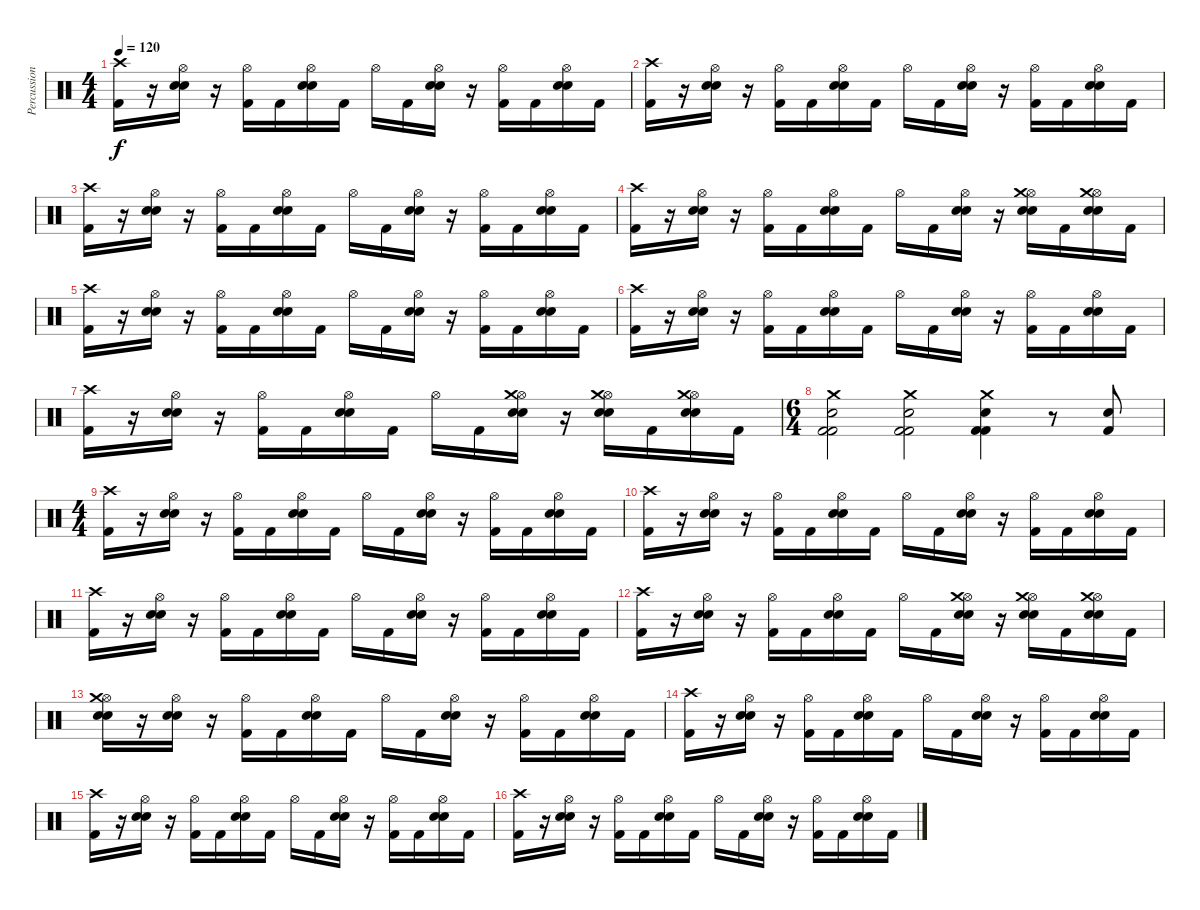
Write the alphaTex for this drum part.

\track ("Percussion" "Percussion") {instrument percussion}
\staff {score}
\articulation defaults
\ts (4 4)
\tempo 120
\clef neutral
\ks c
("Kick (hit) 2" "Crash high (hit)").16{dy f} r.16 ("Hi-Hat (open)" "Electric Snare (hit)" "Snare (hit) 2").16 r.16 ("Kick (hit) 2" "Hi-Hat (open)").16 "Kick (hit) 2".16 ("Electric Snare (hit)" "Hi-Hat (open)" "Snare (hit) 2").16 "Kick (hit) 2".16 "Hi-Hat (open)".16 "Kick (hit) 2".16 ("Hi-Hat (open)" "Electric Snare (hit)" "Snare (hit) 2").16 r.16 ("Kick (hit) 2" "Hi-Hat (open)").16 "Kick (hit) 2".16 ("Electric Snare (hit)" "Hi-Hat (open)" "Snare (hit) 2").16 "Kick (hit) 2".16 |
("Kick (hit) 2" "Crash high (hit)").16 r.16 ("Hi-Hat (open)" "Electric Snare (hit)" "Snare (hit) 2").16 r.16 ("Kick (hit) 2" "Hi-Hat (open)").16 "Kick (hit) 2".16 ("Electric Snare (hit)" "Hi-Hat (open)" "Snare (hit) 2").16 "Kick (hit) 2".16 "Hi-Hat (open)".16 "Kick (hit) 2".16 ("Hi-Hat (open)" "Electric Snare (hit)" "Snare (hit) 2").16 r.16 ("Kick (hit) 2" "Hi-Hat (open)").16 "Kick (hit) 2".16 ("Electric Snare (hit)" "Hi-Hat (open)" "Snare (hit) 2").16 "Kick (hit) 2".16 |
("Kick (hit) 2" "Crash high (hit)").16 r.16 ("Hi-Hat (open)" "Electric Snare (hit)" "Snare (hit) 2").16 r.16 ("Kick (hit) 2" "Hi-Hat (open)").16 "Kick (hit) 2".16 ("Electric Snare (hit)" "Hi-Hat (open)" "Snare (hit) 2").16 "Kick (hit) 2".16 "Hi-Hat (open)".16 "Kick (hit) 2".16 ("Hi-Hat (open)" "Electric Snare (hit)" "Snare (hit) 2").16 r.16 ("Kick (hit) 2" "Hi-Hat (open)").16 "Kick (hit) 2".16 ("Electric Snare (hit)" "Hi-Hat (open)" "Snare (hit) 2").16 "Kick (hit) 2".16 |
("Kick (hit) 2" "Crash high (hit)").16 r.16 ("Hi-Hat (open)" "Electric Snare (hit)" "Snare (hit) 2").16 r.16 ("Kick (hit) 2" "Hi-Hat (open)").16 "Kick (hit) 2".16 ("Electric Snare (hit)" "Hi-Hat (open)" "Snare (hit) 2").16 "Kick (hit) 2".16 "Hi-Hat (open)".16 "Kick (hit) 2".16 ("Hi-Hat (open)" "Electric Snare (hit)" "Snare (hit) 2").16 r.16 ("Hi-Hat (open)" "Electric Snare (hit)" "Snare (hit) 2" "Crash medium (hit)").16 "Kick (hit) 2".16 ("Hi-Hat (open)" "Electric Snare (hit)" "Snare (hit) 2" "Crash medium (hit)").16 "Kick (hit) 2".16 |
("Kick (hit) 2" "Crash high (hit)").16 r.16 ("Hi-Hat (open)" "Electric Snare (hit)" "Snare (hit) 2").16 r.16 ("Kick (hit) 2" "Hi-Hat (open)").16 "Kick (hit) 2".16 ("Electric Snare (hit)" "Hi-Hat (open)" "Snare (hit) 2").16 "Kick (hit) 2".16 "Hi-Hat (open)".16 "Kick (hit) 2".16 ("Hi-Hat (open)" "Electric Snare (hit)" "Snare (hit) 2").16 r.16 ("Kick (hit) 2" "Hi-Hat (open)").16 "Kick (hit) 2".16 ("Electric Snare (hit)" "Hi-Hat (open)" "Snare (hit) 2").16 "Kick (hit) 2".16 |
("Kick (hit) 2" "Crash high (hit)").16 r.16 ("Hi-Hat (open)" "Electric Snare (hit)" "Snare (hit) 2").16 r.16 ("Kick (hit) 2" "Hi-Hat (open)").16 "Kick (hit) 2".16 ("Electric Snare (hit)" "Hi-Hat (open)" "Snare (hit) 2").16 "Kick (hit) 2".16 "Hi-Hat (open)".16 "Kick (hit) 2".16 ("Hi-Hat (open)" "Electric Snare (hit)" "Snare (hit) 2").16 r.16 ("Kick (hit) 2" "Hi-Hat (open)").16 "Kick (hit) 2".16 ("Electric Snare (hit)" "Hi-Hat (open)" "Snare (hit) 2").16 "Kick (hit) 2".16 |
("Kick (hit) 2" "Crash high (hit)").16 r.16 ("Hi-Hat (open)" "Electric Snare (hit)" "Snare (hit) 2").16 r.16 ("Kick (hit) 2" "Hi-Hat (open)").16 "Kick (hit) 2".16 ("Electric Snare (hit)" "Hi-Hat (open)" "Snare (hit) 2").16 "Kick (hit) 2".16 "Hi-Hat (open)".16 "Kick (hit) 2".16 ("Hi-Hat (open)" "Electric Snare (hit)" "Snare (hit) 2" "Crash medium (hit)").16 r.16 ("Hi-Hat (open)" "Electric Snare (hit)" "Snare (hit) 2" "Crash medium (hit)").16 "Kick (hit) 2".16 ("Hi-Hat (open)" "Electric Snare (hit)" "Snare (hit) 2" "Crash medium (hit)").16 "Kick (hit) 2".16 |
\ts (6 4)
("Crash medium (hit)" "Electric Snare (hit)" "Kick (hit) 2" "Kick (hit) 2").2 ("Crash medium (hit)" "Electric Snare (hit)" "Kick (hit) 2" "Kick (hit) 2").2 ("Crash medium (hit)" "Electric Snare (hit)" "Kick (hit) 2" "Kick (hit) 2").4 r.8 ("Snare (hit) 2" "Kick (hit) 2").8 |
\ts (4 4)
("Kick (hit) 2" "Crash high (hit)").16 r.16 ("Hi-Hat (open)" "Electric Snare (hit)" "Snare (hit) 2").16 r.16 ("Kick (hit) 2" "Hi-Hat (open)").16 "Kick (hit) 2".16 ("Electric Snare (hit)" "Hi-Hat (open)" "Snare (hit) 2").16 "Kick (hit) 2".16 "Hi-Hat (open)".16 "Kick (hit) 2".16 ("Hi-Hat (open)" "Electric Snare (hit)" "Snare (hit) 2").16 r.16 ("Kick (hit) 2" "Hi-Hat (open)").16 "Kick (hit) 2".16 ("Electric Snare (hit)" "Hi-Hat (open)" "Snare (hit) 2").16 "Kick (hit) 2".16 |
("Kick (hit) 2" "Crash high (hit)").16 r.16 ("Hi-Hat (open)" "Electric Snare (hit)" "Snare (hit) 2").16 r.16 ("Kick (hit) 2" "Hi-Hat (open)").16 "Kick (hit) 2".16 ("Electric Snare (hit)" "Hi-Hat (open)" "Snare (hit) 2").16 "Kick (hit) 2".16 "Hi-Hat (open)".16 "Kick (hit) 2".16 ("Hi-Hat (open)" "Electric Snare (hit)" "Snare (hit) 2").16 r.16 ("Kick (hit) 2" "Hi-Hat (open)").16 "Kick (hit) 2".16 ("Electric Snare (hit)" "Hi-Hat (open)" "Snare (hit) 2").16 "Kick (hit) 2".16 |
("Kick (hit) 2" "Crash high (hit)").16 r.16 ("Hi-Hat (open)" "Electric Snare (hit)" "Snare (hit) 2").16 r.16 ("Kick (hit) 2" "Hi-Hat (open)").16 "Kick (hit) 2".16 ("Electric Snare (hit)" "Hi-Hat (open)" "Snare (hit) 2").16 "Kick (hit) 2".16 "Hi-Hat (open)".16 "Kick (hit) 2".16 ("Hi-Hat (open)" "Electric Snare (hit)" "Snare (hit) 2").16 r.16 ("Kick (hit) 2" "Hi-Hat (open)").16 "Kick (hit) 2".16 ("Electric Snare (hit)" "Hi-Hat (open)" "Snare (hit) 2").16 "Kick (hit) 2".16 |
("Kick (hit) 2" "Crash high (hit)").16 r.16 ("Hi-Hat (open)" "Electric Snare (hit)" "Snare (hit) 2").16 r.16 ("Kick (hit) 2" "Hi-Hat (open)").16 "Kick (hit) 2".16 ("Electric Snare (hit)" "Hi-Hat (open)" "Snare (hit) 2").16 "Kick (hit) 2".16 "Hi-Hat (open)".16 "Kick (hit) 2".16 ("Hi-Hat (open)" "Electric Snare (hit)" "Snare (hit) 2" "Crash medium (hit)").16 r.16 ("Hi-Hat (open)" "Electric Snare (hit)" "Snare (hit) 2" "Crash medium (hit)").16 "Kick (hit) 2".16 ("Hi-Hat (open)" "Electric Snare (hit)" "Snare (hit) 2" "Crash medium (hit)").16 "Kick (hit) 2".16 |
("Hi-Hat (open)" "Electric Snare (hit)" "Snare (hit) 2" "Crash medium (hit)").16 r.16 ("Hi-Hat (open)" "Electric Snare (hit)" "Snare (hit) 2").16 r.16 ("Kick (hit) 2" "Hi-Hat (open)").16 "Kick (hit) 2".16 ("Electric Snare (hit)" "Hi-Hat (open)" "Snare (hit) 2").16 "Kick (hit) 2".16 "Hi-Hat (open)".16 "Kick (hit) 2".16 ("Hi-Hat (open)" "Electric Snare (hit)" "Snare (hit) 2").16 r.16 ("Kick (hit) 2" "Hi-Hat (open)").16 "Kick (hit) 2".16 ("Electric Snare (hit)" "Hi-Hat (open)" "Snare (hit) 2").16 "Kick (hit) 2".16 |
("Kick (hit) 2" "Crash high (hit)").16 r.16 ("Hi-Hat (open)" "Electric Snare (hit)" "Snare (hit) 2").16 r.16 ("Kick (hit) 2" "Hi-Hat (open)").16 "Kick (hit) 2".16 ("Electric Snare (hit)" "Hi-Hat (open)" "Snare (hit) 2").16 "Kick (hit) 2".16 "Hi-Hat (open)".16 "Kick (hit) 2".16 ("Hi-Hat (open)" "Electric Snare (hit)" "Snare (hit) 2").16 r.16 ("Kick (hit) 2" "Hi-Hat (open)").16 "Kick (hit) 2".16 ("Electric Snare (hit)" "Hi-Hat (open)" "Snare (hit) 2").16 "Kick (hit) 2".16 |
("Kick (hit) 2" "Crash high (hit)").16 r.16 ("Hi-Hat (open)" "Electric Snare (hit)" "Snare (hit) 2").16 r.16 ("Kick (hit) 2" "Hi-Hat (open)").16 "Kick (hit) 2".16 ("Electric Snare (hit)" "Hi-Hat (open)" "Snare (hit) 2").16 "Kick (hit) 2".16 "Hi-Hat (open)".16 "Kick (hit) 2".16 ("Hi-Hat (open)" "Electric Snare (hit)" "Snare (hit) 2").16 r.16 ("Kick (hit) 2" "Hi-Hat (open)").16 "Kick (hit) 2".16 ("Electric Snare (hit)" "Hi-Hat (open)" "Snare (hit) 2").16 "Kick (hit) 2".16 |
("Kick (hit) 2" "Crash high (hit)").16 r.16 ("Hi-Hat (open)" "Electric Snare (hit)" "Snare (hit) 2").16 r.16 ("Kick (hit) 2" "Hi-Hat (open)").16 "Kick (hit) 2".16 ("Electric Snare (hit)" "Hi-Hat (open)" "Snare (hit) 2").16 "Kick (hit) 2".16 "Hi-Hat (open)".16 "Kick (hit) 2".16 ("Hi-Hat (open)" "Electric Snare (hit)" "Snare (hit) 2").16 r.16 ("Kick (hit) 2" "Hi-Hat (open)").16 "Kick (hit) 2".16 ("Electric Snare (hit)" "Hi-Hat (open)" "Snare (hit) 2").16 "Kick (hit) 2".16
